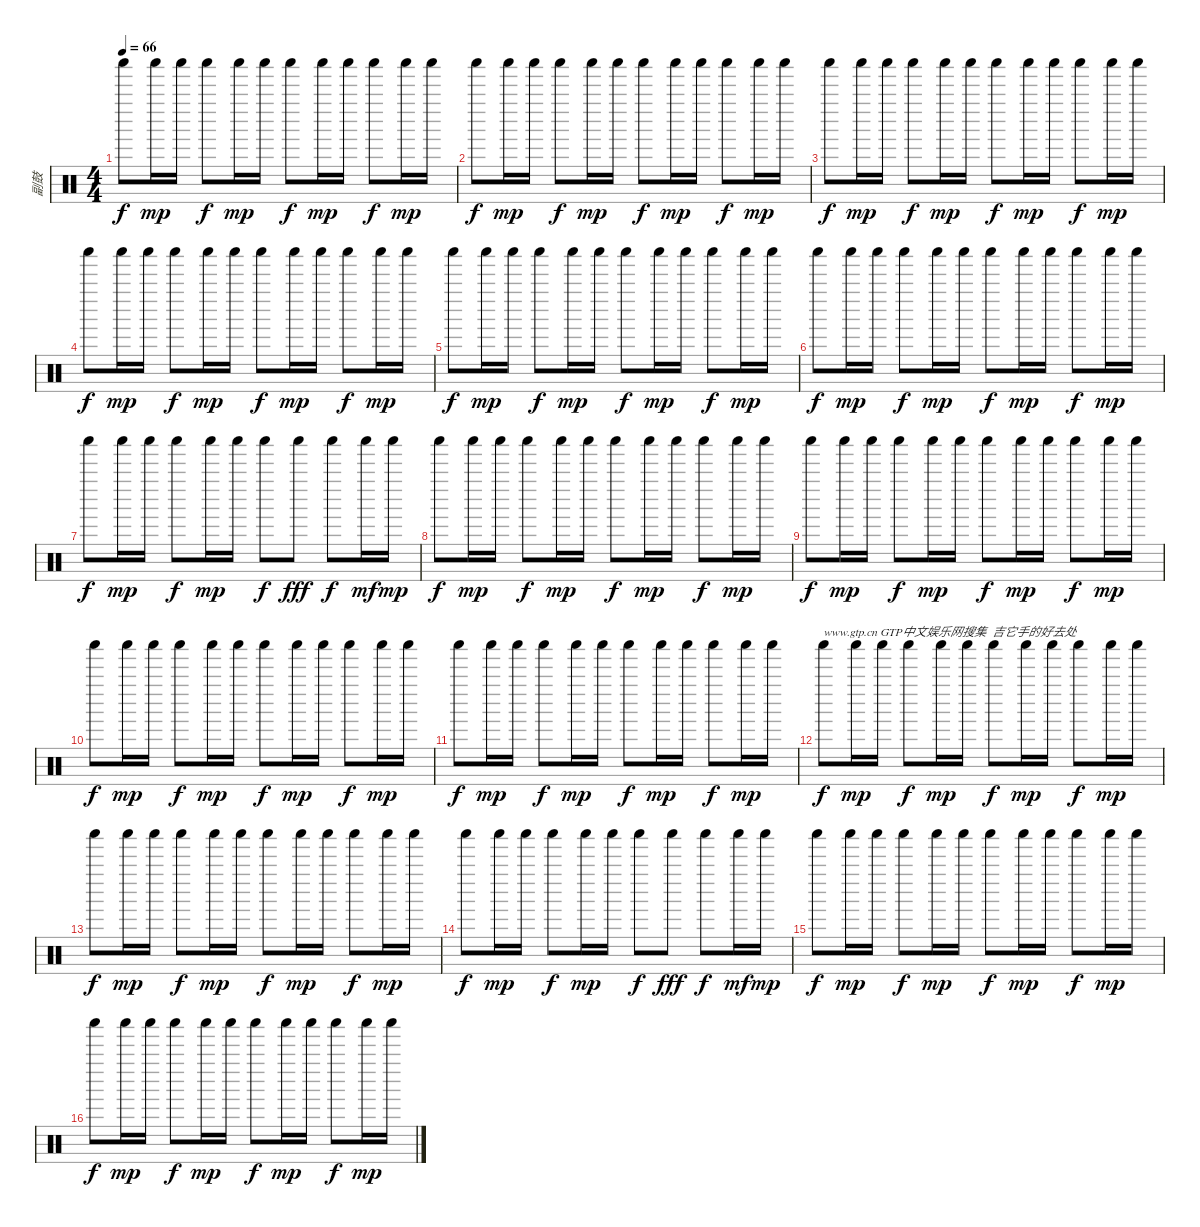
\track ("副鼓" "副鼓") {instrument percussion}
\staff {score}
\articulation defaults
\ts (4 4)
\tempo 66
\clef neutral
\ks c "Shaker (hit)".8{dy f} "Shaker (hit)".16{dy mp} "Shaker (hit)".16 "Shaker (hit)".8{dy f} "Shaker (hit)".16{dy mp} "Shaker (hit)".16 "Shaker (hit)".8{dy f} "Shaker (hit)".16{dy mp} "Shaker (hit)".16 "Shaker (hit)".8{dy f} "Shaker (hit)".16{dy mp} "Shaker (hit)".16
|
"Shaker (hit)".8{dy f} "Shaker (hit)".16{dy mp} "Shaker (hit)".16 "Shaker (hit)".8{dy f} "Shaker (hit)".16{dy mp} "Shaker (hit)".16 "Shaker (hit)".8{dy f} "Shaker (hit)".16{dy mp} "Shaker (hit)".16 "Shaker (hit)".8{dy f} "Shaker (hit)".16{dy mp} "Shaker (hit)".16 |
"Shaker (hit)".8{dy f} "Shaker (hit)".16{dy mp} "Shaker (hit)".16 "Shaker (hit)".8{dy f} "Shaker (hit)".16{dy mp} "Shaker (hit)".16 "Shaker (hit)".8{dy f} "Shaker (hit)".16{dy mp} "Shaker (hit)".16 "Shaker (hit)".8{dy f} "Shaker (hit)".16{dy mp} "Shaker (hit)".16 |
"Shaker (hit)".8{dy f} "Shaker (hit)".16{dy mp} "Shaker (hit)".16 "Shaker (hit)".8{dy f} "Shaker (hit)".16{dy mp} "Shaker (hit)".16 "Shaker (hit)".8{dy f} "Shaker (hit)".16{dy mp} "Shaker (hit)".16 "Shaker (hit)".8{dy f} "Shaker (hit)".16{dy mp} "Shaker (hit)".16 |
"Shaker (hit)".8{dy f} "Shaker (hit)".16{dy mp} "Shaker (hit)".16 "Shaker (hit)".8{dy f} "Shaker (hit)".16{dy mp} "Shaker (hit)".16 "Shaker (hit)".8{dy f} "Shaker (hit)".16{dy mp} "Shaker (hit)".16 "Shaker (hit)".8{dy f} "Shaker (hit)".16{dy mp} "Shaker (hit)".16 |
"Shaker (hit)".8{dy f} "Shaker (hit)".16{dy mp} "Shaker (hit)".16 "Shaker (hit)".8{dy f} "Shaker (hit)".16{dy mp} "Shaker (hit)".16 "Shaker (hit)".8{dy f} "Shaker (hit)".16{dy mp} "Shaker (hit)".16 "Shaker (hit)".8{dy f} "Shaker (hit)".16{dy mp} "Shaker (hit)".16 |
"Shaker (hit)".8{dy f} "Shaker (hit)".16{dy mp} "Shaker (hit)".16 "Shaker (hit)".8{dy f} "Shaker (hit)".16{dy mp} "Shaker (hit)".16 "Shaker (hit)".8{dy f} "Shaker (hit)".8{dy fff} "Shaker (hit)".8{dy f} "Shaker (hit)".16{dy mf} "Shaker (hit)".16{dy mp} |
"Shaker (hit)".8{dy f} "Shaker (hit)".16{dy mp} "Shaker (hit)".16 "Shaker (hit)".8{dy f} "Shaker (hit)".16{dy mp} "Shaker (hit)".16 "Shaker (hit)".8{dy f} "Shaker (hit)".16{dy mp} "Shaker (hit)".16 "Shaker (hit)".8{dy f} "Shaker (hit)".16{dy mp} "Shaker (hit)".16 |
"Shaker (hit)".8{dy f} "Shaker (hit)".16{dy mp} "Shaker (hit)".16 "Shaker (hit)".8{dy f} "Shaker (hit)".16{dy mp} "Shaker (hit)".16 "Shaker (hit)".8{dy f} "Shaker (hit)".16{dy mp} "Shaker (hit)".16 "Shaker (hit)".8{dy f} "Shaker (hit)".16{dy mp} "Shaker (hit)".16 |
"Shaker (hit)".8{dy f} "Shaker (hit)".16{dy mp} "Shaker (hit)".16 "Shaker (hit)".8{dy f} "Shaker (hit)".16{dy mp} "Shaker (hit)".16 "Shaker (hit)".8{dy f} "Shaker (hit)".16{dy mp} "Shaker (hit)".16 "Shaker (hit)".8{dy f} "Shaker (hit)".16{dy mp} "Shaker (hit)".16 |
"Shaker (hit)".8{dy f} "Shaker (hit)".16{dy mp} "Shaker (hit)".16 "Shaker (hit)".8{dy f} "Shaker (hit)".16{dy mp} "Shaker (hit)".16 "Shaker (hit)".8{dy f} "Shaker (hit)".16{dy mp} "Shaker (hit)".16 "Shaker (hit)".8{dy f} "Shaker (hit)".16{dy mp} "Shaker (hit)".16 |
"Shaker (hit)".8{txt "www.gtp.cn GTP中文娱乐网搜集  吉它手的好去处" dy f} "Shaker (hit)".16{dy mp} "Shaker (hit)".16 "Shaker (hit)".8{dy f} "Shaker (hit)".16{dy mp} "Shaker (hit)".16 "Shaker (hit)".8{dy f} "Shaker (hit)".16{dy mp} "Shaker (hit)".16 "Shaker (hit)".8{dy f} "Shaker (hit)".16{dy mp} "Shaker (hit)".16 |
"Shaker (hit)".8{dy f} "Shaker (hit)".16{dy mp} "Shaker (hit)".16 "Shaker (hit)".8{dy f} "Shaker (hit)".16{dy mp} "Shaker (hit)".16 "Shaker (hit)".8{dy f} "Shaker (hit)".16{dy mp} "Shaker (hit)".16 "Shaker (hit)".8{dy f} "Shaker (hit)".16{dy mp} "Shaker (hit)".16 |
"Shaker (hit)".8{dy f} "Shaker (hit)".16{dy mp} "Shaker (hit)".16 "Shaker (hit)".8{dy f} "Shaker (hit)".16{dy mp} "Shaker (hit)".16 "Shaker (hit)".8{dy f} "Shaker (hit)".8{dy fff} "Shaker (hit)".8{dy f} "Shaker (hit)".16{dy mf} "Shaker (hit)".16{dy mp} |
"Shaker (hit)".8{dy f} "Shaker (hit)".16{dy mp} "Shaker (hit)".16 "Shaker (hit)".8{dy f} "Shaker (hit)".16{dy mp} "Shaker (hit)".16 "Shaker (hit)".8{dy f} "Shaker (hit)".16{dy mp} "Shaker (hit)".16 "Shaker (hit)".8{dy f} "Shaker (hit)".16{dy mp} "Shaker (hit)".16 |
"Shaker (hit)".8{dy f} "Shaker (hit)".16{dy mp} "Shaker (hit)".16 "Shaker (hit)".8{dy f} "Shaker (hit)".16{dy mp} "Shaker (hit)".16 "Shaker (hit)".8{dy f} "Shaker (hit)".16{dy mp} "Shaker (hit)".16 "Shaker (hit)".8{dy f} "Shaker (hit)".16{dy mp} "Shaker (hit)".16
